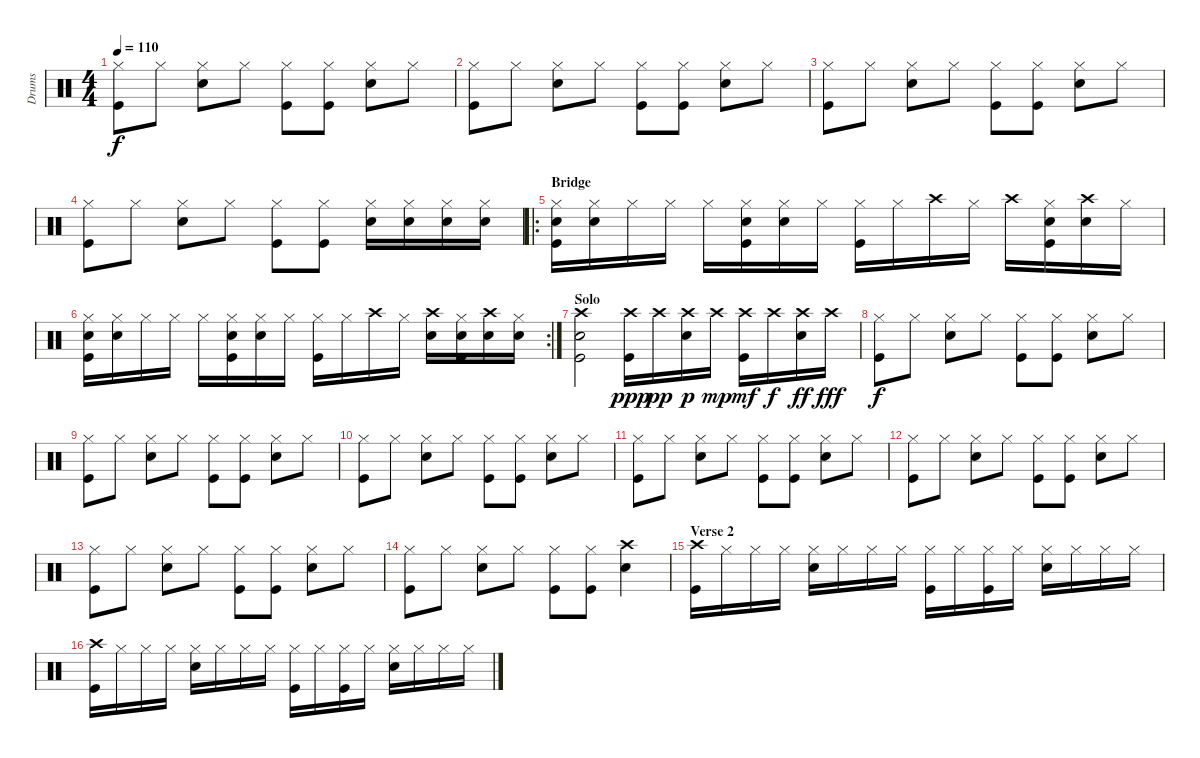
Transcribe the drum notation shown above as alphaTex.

\track ("Drums" "Drums") {instrument percussion}
\staff {score}
\articulation defaults
\ts (4 4)
\tempo 110
\clef neutral
\ks c
("Hi-Hat (closed)" "Kick (hit)").8{dy f} "Hi-Hat (closed)".8 ("Hi-Hat (closed)" "Electric Snare (hit)").8 "Hi-Hat (closed)".8 ("Hi-Hat (closed)" "Kick (hit)").8 ("Hi-Hat (closed)" "Kick (hit)").8 ("Hi-Hat (closed)" "Electric Snare (hit)").8 "Hi-Hat (closed)".8 |
("Hi-Hat (closed)" "Kick (hit)").8 "Hi-Hat (closed)".8 ("Hi-Hat (closed)" "Electric Snare (hit)").8 "Hi-Hat (closed)".8 ("Hi-Hat (closed)" "Kick (hit)").8 ("Hi-Hat (closed)" "Kick (hit)").8 ("Hi-Hat (closed)" "Electric Snare (hit)").8 "Hi-Hat (closed)".8 |
("Hi-Hat (closed)" "Kick (hit)").8 "Hi-Hat (closed)".8 ("Hi-Hat (closed)" "Electric Snare (hit)").8 "Hi-Hat (closed)".8 ("Hi-Hat (closed)" "Kick (hit)").8 ("Hi-Hat (closed)" "Kick (hit)").8 ("Hi-Hat (closed)" "Electric Snare (hit)").8 "Hi-Hat (closed)".8 |
("Hi-Hat (closed)" "Kick (hit)").8 "Hi-Hat (closed)".8 ("Hi-Hat (closed)" "Electric Snare (hit)").8 "Hi-Hat (closed)".8 ("Hi-Hat (closed)" "Kick (hit)").8 ("Hi-Hat (closed)" "Kick (hit)").8 ("Hi-Hat (closed)" "Electric Snare (hit)").16 ("Hi-Hat (closed)" "Electric Snare (hit)").16 ("Hi-Hat (closed)" "Electric Snare (hit)").16 ("Hi-Hat (closed)" "Electric Snare (hit)").16 |
\ro
\section ("" "Bridge")
("Hi-Hat (closed)" "Electric Snare (hit)" "Kick (hit)").16 ("Hi-Hat (closed)" "Electric Snare (hit)").16 "Hi-Hat (closed)".16 "Hi-Hat (closed)".16 "Hi-Hat (closed)".16 ("Hi-Hat (closed)" "Electric Snare (hit)" "Kick (hit)").16 ("Hi-Hat (closed)" "Electric Snare (hit)").16 "Hi-Hat (closed)".16 ("Hi-Hat (closed)" "Kick (hit)").16 "Hi-Hat (closed)".16 "Crash high (hit)".16 "Hi-Hat (closed)".16 "Crash high (hit)".16 ("Hi-Hat (closed)" "Electric Snare (hit)" "Kick (hit)").16 ("Crash high (hit)" "Electric Snare (hit)").16 "Hi-Hat (closed)".16 |
\rc 2
("Hi-Hat (closed)" "Electric Snare (hit)" "Kick (hit)").16 ("Hi-Hat (closed)" "Electric Snare (hit)").16 "Hi-Hat (closed)".16 "Hi-Hat (closed)".16 "Hi-Hat (closed)".16 ("Hi-Hat (closed)" "Electric Snare (hit)" "Kick (hit)").16 ("Hi-Hat (closed)" "Electric Snare (hit)").16 "Hi-Hat (closed)".16 ("Hi-Hat (closed)" "Kick (hit)").16 "Hi-Hat (closed)".16 "Crash high (hit)".16 "Hi-Hat (closed)".16 ("Crash high (hit)" "Electric Snare (hit)").16 ("Hi-Hat (closed)" "Electric Snare (hit)" "Kick (hit)").16 ("Crash high (hit)" "Electric Snare (hit)").16 ("Hi-Hat (closed)" "Electric Snare (hit)").16 |
\section ("" "Solo")
("Crash high (hit)" "Electric Snare (hit)" "Kick (hit)").2 ("Crash high (hit)" "Kick (hit)").16{dy ppp} "Crash high (hit)".16{dy pp} ("Crash high (hit)" "Electric Snare (hit)").16{dy p} "Crash high (hit)".16{dy mp} ("Crash high (hit)" "Kick (hit)").16{dy mf} "Crash high (hit)".16{dy f} ("Crash high (hit)" "Electric Snare (hit)").16{dy ff} "Crash high (hit)".16{dy fff} |
("Hi-Hat (closed)" "Kick (hit)").8{dy f} "Hi-Hat (closed)".8 ("Hi-Hat (closed)" "Electric Snare (hit)").8 "Hi-Hat (closed)".8 ("Hi-Hat (closed)" "Kick (hit)").8 ("Hi-Hat (closed)" "Kick (hit)").8 ("Hi-Hat (closed)" "Electric Snare (hit)").8 "Hi-Hat (closed)".8 |
("Hi-Hat (closed)" "Kick (hit)").8 "Hi-Hat (closed)".8 ("Hi-Hat (closed)" "Electric Snare (hit)").8 "Hi-Hat (closed)".8 ("Hi-Hat (closed)" "Kick (hit)").8 ("Hi-Hat (closed)" "Kick (hit)").8 ("Hi-Hat (closed)" "Electric Snare (hit)").8 "Hi-Hat (closed)".8 |
("Hi-Hat (closed)" "Kick (hit)").8 "Hi-Hat (closed)".8 ("Hi-Hat (closed)" "Electric Snare (hit)").8 "Hi-Hat (closed)".8 ("Hi-Hat (closed)" "Kick (hit)").8 ("Hi-Hat (closed)" "Kick (hit)").8 ("Hi-Hat (closed)" "Electric Snare (hit)").8 "Hi-Hat (closed)".8 |
("Hi-Hat (closed)" "Kick (hit)").8 "Hi-Hat (closed)".8 ("Hi-Hat (closed)" "Electric Snare (hit)").8 "Hi-Hat (closed)".8 ("Hi-Hat (closed)" "Kick (hit)").8 ("Hi-Hat (closed)" "Kick (hit)").8 ("Hi-Hat (closed)" "Electric Snare (hit)").8 "Hi-Hat (closed)".8 |
("Hi-Hat (closed)" "Kick (hit)").8 "Hi-Hat (closed)".8 ("Hi-Hat (closed)" "Electric Snare (hit)").8 "Hi-Hat (closed)".8 ("Hi-Hat (closed)" "Kick (hit)").8 ("Hi-Hat (closed)" "Kick (hit)").8 ("Hi-Hat (closed)" "Electric Snare (hit)").8 "Hi-Hat (closed)".8 |
("Hi-Hat (closed)" "Kick (hit)").8 "Hi-Hat (closed)".8 ("Hi-Hat (closed)" "Electric Snare (hit)").8 "Hi-Hat (closed)".8 ("Hi-Hat (closed)" "Kick (hit)").8 ("Hi-Hat (closed)" "Kick (hit)").8 ("Hi-Hat (closed)" "Electric Snare (hit)").8 "Hi-Hat (closed)".8 |
("Hi-Hat (closed)" "Kick (hit)").8 "Hi-Hat (closed)".8 ("Hi-Hat (closed)" "Electric Snare (hit)").8 "Hi-Hat (closed)".8 ("Hi-Hat (closed)" "Kick (hit)").8 ("Hi-Hat (closed)" "Kick (hit)").8 ("Crash high (hit)" "Electric Snare (hit)").4 |
\section ("" "Verse 2")
("Crash high (hit)" "Kick (hit)").16 "Hi-Hat (closed)".16 "Hi-Hat (closed)".16 "Hi-Hat (closed)".16 ("Hi-Hat (closed)" "Electric Snare (hit)").16 "Hi-Hat (closed)".16 "Hi-Hat (closed)".16 "Hi-Hat (closed)".16 ("Hi-Hat (closed)" "Kick (hit)").16 "Hi-Hat (closed)".16 ("Hi-Hat (closed)" "Kick (hit)").16 "Hi-Hat (closed)".16 ("Hi-Hat (closed)" "Electric Snare (hit)").16 "Hi-Hat (closed)".16 "Hi-Hat (closed)".16 "Hi-Hat (closed)".16 |
("Crash high (hit)" "Kick (hit)").16 "Hi-Hat (closed)".16 "Hi-Hat (closed)".16 "Hi-Hat (closed)".16 ("Hi-Hat (closed)" "Electric Snare (hit)").16 "Hi-Hat (closed)".16 "Hi-Hat (closed)".16 "Hi-Hat (closed)".16 ("Hi-Hat (closed)" "Kick (hit)").16 "Hi-Hat (closed)".16 ("Hi-Hat (closed)" "Kick (hit)").16 "Hi-Hat (closed)".16 ("Hi-Hat (closed)" "Electric Snare (hit)").16 "Hi-Hat (closed)".16 "Hi-Hat (closed)".16 "Hi-Hat (closed)".16
